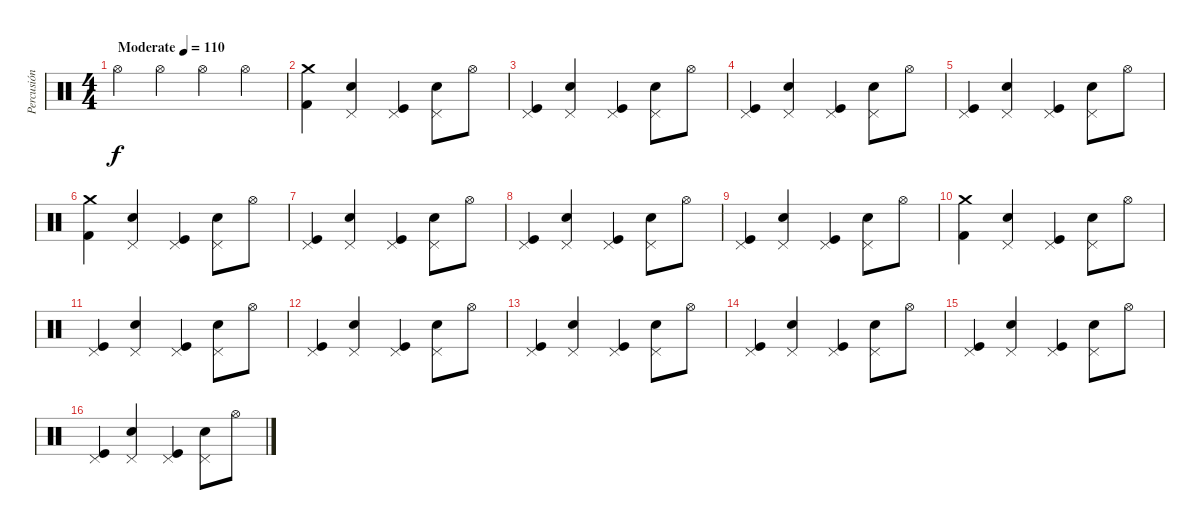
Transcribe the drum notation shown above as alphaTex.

\track ("Percusión" "Percusión") {instrument percussion}
\staff {score}
\articulation defaults
\ts (4 4)
\tempo (110 "Moderate")
\clef neutral
\ks c "Hi-Hat (open)".4{dy f} "Hi-Hat (open)".4 "Hi-Hat (open)".4 "Hi-Hat (open)".4
|
("Kick (hit) 2" "Crash medium (hit)").4 ("Electric Snare (hit)" "Pedal Hi-Hat (hit)").4 ("Kick (hit)" "Pedal Hi-Hat (hit)").4 ("Electric Snare (hit)" "Pedal Hi-Hat (hit)").8 "Hi-Hat (open)".8 |
("Kick (hit)" "Pedal Hi-Hat (hit)").4 ("Electric Snare (hit)" "Pedal Hi-Hat (hit)").4 ("Kick (hit)" "Pedal Hi-Hat (hit)").4 ("Electric Snare (hit)" "Pedal Hi-Hat (hit)").8 "Hi-Hat (open)".8 |
("Kick (hit)" "Pedal Hi-Hat (hit)").4 ("Electric Snare (hit)" "Pedal Hi-Hat (hit)").4 ("Kick (hit)" "Pedal Hi-Hat (hit)").4 ("Electric Snare (hit)" "Pedal Hi-Hat (hit)").8 "Hi-Hat (open)".8 |
("Kick (hit)" "Pedal Hi-Hat (hit)").4 ("Electric Snare (hit)" "Pedal Hi-Hat (hit)").4 ("Kick (hit)" "Pedal Hi-Hat (hit)").4 ("Electric Snare (hit)" "Pedal Hi-Hat (hit)").8 "Hi-Hat (open)".8 |
("Kick (hit) 2" "Crash medium (hit)").4 ("Electric Snare (hit)" "Pedal Hi-Hat (hit)").4 ("Kick (hit)" "Pedal Hi-Hat (hit)").4 ("Electric Snare (hit)" "Pedal Hi-Hat (hit)").8 "Hi-Hat (open)".8 |
("Kick (hit)" "Pedal Hi-Hat (hit)").4 ("Electric Snare (hit)" "Pedal Hi-Hat (hit)").4 ("Kick (hit)" "Pedal Hi-Hat (hit)").4 ("Electric Snare (hit)" "Pedal Hi-Hat (hit)").8 "Hi-Hat (open)".8 |
("Kick (hit)" "Pedal Hi-Hat (hit)").4 ("Electric Snare (hit)" "Pedal Hi-Hat (hit)").4 ("Kick (hit)" "Pedal Hi-Hat (hit)").4 ("Electric Snare (hit)" "Pedal Hi-Hat (hit)").8 "Hi-Hat (open)".8 |
("Kick (hit)" "Pedal Hi-Hat (hit)").4 ("Electric Snare (hit)" "Pedal Hi-Hat (hit)").4 ("Kick (hit)" "Pedal Hi-Hat (hit)").4 ("Electric Snare (hit)" "Pedal Hi-Hat (hit)").8 "Hi-Hat (open)".8 |
("Kick (hit) 2" "Crash medium (hit)").4 ("Electric Snare (hit)" "Pedal Hi-Hat (hit)").4 ("Kick (hit)" "Pedal Hi-Hat (hit)").4 ("Electric Snare (hit)" "Pedal Hi-Hat (hit)").8 "Hi-Hat (open)".8 |
("Kick (hit)" "Pedal Hi-Hat (hit)").4 ("Electric Snare (hit)" "Pedal Hi-Hat (hit)").4 ("Kick (hit)" "Pedal Hi-Hat (hit)").4 ("Electric Snare (hit)" "Pedal Hi-Hat (hit)").8 "Hi-Hat (open)".8 |
("Kick (hit)" "Pedal Hi-Hat (hit)").4 ("Electric Snare (hit)" "Pedal Hi-Hat (hit)").4 ("Kick (hit)" "Pedal Hi-Hat (hit)").4 ("Electric Snare (hit)" "Pedal Hi-Hat (hit)").8 "Hi-Hat (open)".8 |
("Kick (hit)" "Pedal Hi-Hat (hit)").4 ("Electric Snare (hit)" "Pedal Hi-Hat (hit)").4 ("Kick (hit)" "Pedal Hi-Hat (hit)").4 ("Electric Snare (hit)" "Pedal Hi-Hat (hit)").8 "Hi-Hat (open)".8 |
("Kick (hit)" "Pedal Hi-Hat (hit)").4 ("Electric Snare (hit)" "Pedal Hi-Hat (hit)").4 ("Kick (hit)" "Pedal Hi-Hat (hit)").4 ("Electric Snare (hit)" "Pedal Hi-Hat (hit)").8 "Hi-Hat (open)".8 |
("Kick (hit)" "Pedal Hi-Hat (hit)").4 ("Electric Snare (hit)" "Pedal Hi-Hat (hit)").4 ("Kick (hit)" "Pedal Hi-Hat (hit)").4 ("Electric Snare (hit)" "Pedal Hi-Hat (hit)").8 "Hi-Hat (open)".8 |
("Kick (hit)" "Pedal Hi-Hat (hit)").4 ("Electric Snare (hit)" "Pedal Hi-Hat (hit)").4 ("Kick (hit)" "Pedal Hi-Hat (hit)").4 ("Electric Snare (hit)" "Pedal Hi-Hat (hit)").8 "Hi-Hat (open)".8
